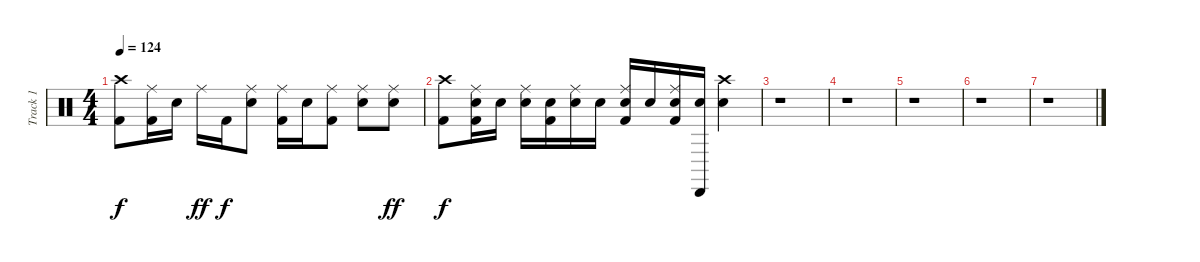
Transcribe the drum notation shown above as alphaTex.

\track ("Track 1" "Track 1") {instrument percussion}
\staff {score}
\articulation defaults
\ts (4 4)
\tempo 124
\clef neutral
\ks c
("Crash high (hit)" "Kick (hit) 2").8{dy f} ("Ride (middle)" "Kick (hit) 2").16 "Electric Snare (hit)".16 "Ride (middle)".16{dy ff} "Kick (hit) 2".16{dy f} ("Ride (middle)" "Electric Snare (hit)").8 ("Ride (middle)" "Kick (hit) 2").16 "Electric Snare (hit)".16 ("Ride (middle)" "Kick (hit) 2").8 ("Ride (middle)" "Electric Snare (hit)").8 ("Ride (middle)" "Electric Snare (hit)").8{dy ff} |
("Crash high (hit)" "Kick (hit) 2").8{dy f} ("Ride (middle)" "Electric Snare (hit)" "Kick (hit) 2").16 "Electric Snare (hit)".16 ("Ride (middle)" "Electric Snare (hit)").16 ("Electric Snare (hit)" "Kick (hit) 2").16 ("Ride (middle)" "Electric Snare (hit)").16 "Electric Snare (hit)".16 ("Ride (middle)" "Electric Snare (hit)" "Kick (hit) 2").16 "Electric Snare (hit)".16 ("Ride (middle)" "Electric Snare (hit)" "Kick (hit) 2").16 ("Electric Snare (hit)" "Cabasa (hit)").16 ("Crash high (hit)" "Electric Snare (hit)").4 |
r.1 |
r.1 |
r.1 |
r.1 |
r.1
